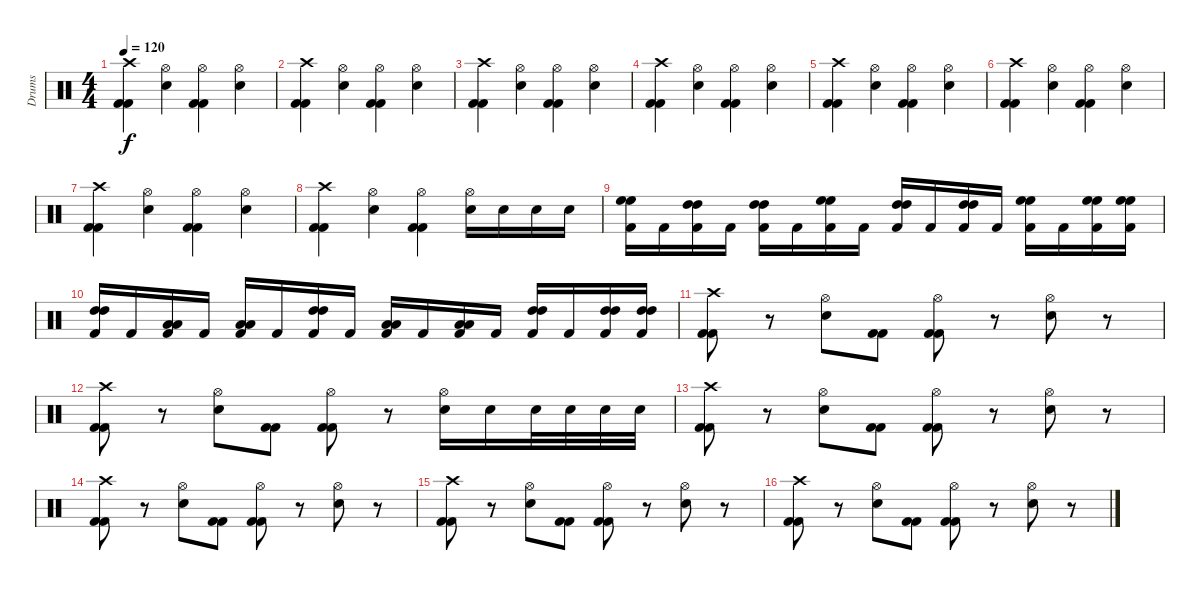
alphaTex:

\track ("Drums" "Drums") {instrument percussion}
\staff {score}
\articulation defaults
\ts (4 4)
\tempo 120
\clef neutral
\ks c
("Crash high (hit)" "Kick (hit) 2" "Kick (hit) 2").4{dy f} ("Hi-Hat (open)" "Snare (hit) 2").4 ("Hi-Hat (open)" "Kick (hit) 2" "Kick (hit) 2").4 ("Hi-Hat (open)" "Snare (hit) 2").4 |
("Crash high (hit)" "Kick (hit) 2" "Kick (hit) 2").4 ("Hi-Hat (open)" "Snare (hit) 2").4 ("Hi-Hat (open)" "Kick (hit) 2" "Kick (hit) 2").4 ("Hi-Hat (open)" "Snare (hit) 2").4 |
("Crash high (hit)" "Kick (hit) 2" "Kick (hit) 2").4 ("Hi-Hat (open)" "Snare (hit) 2").4 ("Hi-Hat (open)" "Kick (hit) 2" "Kick (hit) 2").4 ("Hi-Hat (open)" "Snare (hit) 2").4 |
("Crash high (hit)" "Kick (hit) 2" "Kick (hit) 2").4 ("Hi-Hat (open)" "Snare (hit) 2").4 ("Hi-Hat (open)" "Kick (hit) 2" "Kick (hit) 2").4 ("Hi-Hat (open)" "Snare (hit) 2").4 |
("Crash high (hit)" "Kick (hit) 2" "Kick (hit) 2").4 ("Hi-Hat (open)" "Snare (hit) 2").4 ("Hi-Hat (open)" "Kick (hit) 2" "Kick (hit) 2").4 ("Hi-Hat (open)" "Snare (hit) 2").4 |
("Crash high (hit)" "Kick (hit) 2" "Kick (hit) 2").4 ("Hi-Hat (open)" "Snare (hit) 2").4 ("Hi-Hat (open)" "Kick (hit) 2" "Kick (hit) 2").4 ("Hi-Hat (open)" "Snare (hit) 2").4 |
("Crash high (hit)" "Kick (hit) 2" "Kick (hit) 2").4 ("Hi-Hat (open)" "Snare (hit) 2").4 ("Hi-Hat (open)" "Kick (hit) 2" "Kick (hit) 2").4 ("Hi-Hat (open)" "Snare (hit) 2").4 |
("Crash high (hit)" "Kick (hit) 2" "Kick (hit) 2").4 ("Hi-Hat (open)" "Snare (hit) 2").4 ("Hi-Hat (open)" "Kick (hit) 2" "Kick (hit) 2").4 ("Hi-Hat (open)" "Snare (hit) 2").16 "Snare (hit) 2".16 "Snare (hit) 2".16 "Snare (hit) 2".16 |
("High Floor Tom (hit)" "High Floor Tom (hit)" "Kick (hit) 2").16 "Kick (hit) 2".16 ("High Tom (hit)" "High Tom (hit)" "Kick (hit) 2").16 "Kick (hit) 2".16 ("High Tom (hit)" "High Tom (hit)" "Kick (hit) 2").16 "Kick (hit) 2".16 ("High Floor Tom (hit)" "High Floor Tom (hit)" "Kick (hit) 2").16 "Kick (hit) 2".16 ("High Tom (hit)" "High Tom (hit)" "Kick (hit) 2").16 "Kick (hit) 2".16 ("High Tom (hit)" "High Tom (hit)" "Kick (hit) 2").16 "Kick (hit) 2".16 ("High Floor Tom (hit)" "High Floor Tom (hit)" "Kick (hit) 2").16 "Kick (hit) 2".16 ("High Floor Tom (hit)" "High Floor Tom (hit)" "Kick (hit) 2").16 ("High Floor Tom (hit)" "High Floor Tom (hit)" "Kick (hit) 2").16 |
("High Tom (hit)" "High Tom (hit)" "Kick (hit) 2").16 "Kick (hit) 2".16 ("Low Tom (hit)" "Low Tom (hit)" "Kick (hit) 2").16 "Kick (hit) 2".16 ("Low Tom (hit)" "Low Tom (hit)" "Kick (hit) 2").16 "Kick (hit) 2".16 ("High Tom (hit)" "High Tom (hit)" "Kick (hit) 2").16 "Kick (hit) 2".16 ("Low Tom (hit)" "Low Tom (hit)" "Kick (hit) 2").16 "Kick (hit) 2".16 ("Low Tom (hit)" "Low Tom (hit)" "Kick (hit) 2").16 "Kick (hit) 2".16 ("High Tom (hit)" "High Tom (hit)" "Kick (hit) 2").16 "Kick (hit) 2".16 ("High Tom (hit)" "High Tom (hit)" "Kick (hit) 2").16 ("High Tom (hit)" "High Tom (hit)" "Kick (hit) 2").16 |
("Crash high (hit)" "Kick (hit) 2" "Kick (hit) 2").8 r.8 ("Hi-Hat (open)" "Snare (hit) 2").8 ("Kick (hit) 2" "Kick (hit) 2").8 ("Hi-Hat (open)" "Kick (hit) 2" "Kick (hit) 2").8 r.8 ("Hi-Hat (open)" "Snare (hit) 2").8 r.8 |
("Crash high (hit)" "Kick (hit) 2" "Kick (hit) 2").8 r.8 ("Hi-Hat (open)" "Snare (hit) 2").8 ("Kick (hit) 2" "Kick (hit) 2").8 ("Hi-Hat (open)" "Kick (hit) 2" "Kick (hit) 2").8 r.8 ("Hi-Hat (open)" "Snare (hit) 2").16 "Snare (hit) 2".16 "Snare (hit) 2".32 "Snare (hit) 2".32 "Snare (hit) 2".32 "Snare (hit) 2".32 |
("Crash high (hit)" "Kick (hit) 2" "Kick (hit) 2").8 r.8 ("Hi-Hat (open)" "Snare (hit) 2").8 ("Kick (hit) 2" "Kick (hit) 2").8 ("Hi-Hat (open)" "Kick (hit) 2" "Kick (hit) 2").8 r.8 ("Hi-Hat (open)" "Snare (hit) 2").8 r.8 |
("Crash high (hit)" "Kick (hit) 2" "Kick (hit) 2").8 r.8 ("Hi-Hat (open)" "Snare (hit) 2").8 ("Kick (hit) 2" "Kick (hit) 2").8 ("Hi-Hat (open)" "Kick (hit) 2" "Kick (hit) 2").8 r.8 ("Hi-Hat (open)" "Snare (hit) 2").8 r.8 |
("Crash high (hit)" "Kick (hit) 2" "Kick (hit) 2").8 r.8 ("Hi-Hat (open)" "Snare (hit) 2").8 ("Kick (hit) 2" "Kick (hit) 2").8 ("Hi-Hat (open)" "Kick (hit) 2" "Kick (hit) 2").8 r.8 ("Hi-Hat (open)" "Snare (hit) 2").8 r.8 |
("Crash high (hit)" "Kick (hit) 2" "Kick (hit) 2").8 r.8 ("Hi-Hat (open)" "Snare (hit) 2").8 ("Kick (hit) 2" "Kick (hit) 2").8 ("Hi-Hat (open)" "Kick (hit) 2" "Kick (hit) 2").8 r.8 ("Hi-Hat (open)" "Snare (hit) 2").8 r.8
